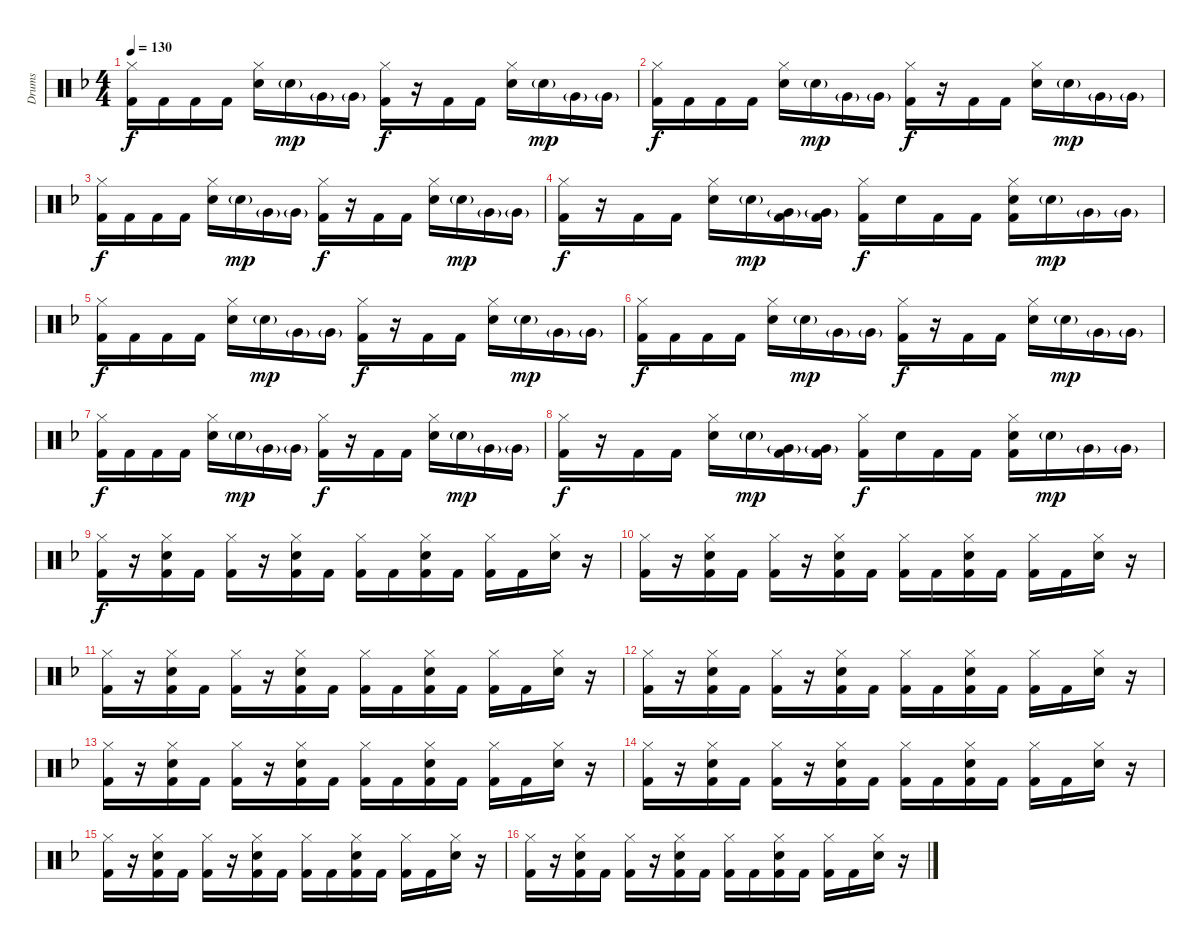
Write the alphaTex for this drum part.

\track ("Drums" "Drums") {instrument percussion}
\staff {score}
\articulation defaults
\ts (4 4)
\tempo 130
\clef neutral
\ks f
("Hi-Hat (closed)" "Kick (hit) 2").16{dy f} "Kick (hit) 2".16 "Kick (hit) 2".16 "Kick (hit) 2".16 ("Hi-Hat (closed)" "Electric Snare (hit)").16 "Snare (hit) 2"{g}.16{dy mp} "Very Low Tom (hit)"{g}.16 "Very Low Tom (hit)"{g}.16 ("Hi-Hat (closed)" "Kick (hit) 2").16{dy f} r.16 "Kick (hit) 2".16 "Kick (hit) 2".16 ("Hi-Hat (closed)" "Electric Snare (hit)").16 "Snare (hit) 2"{g}.16{dy mp} "Very Low Tom (hit)"{g}.16 "Very Low Tom (hit)"{g}.16 |
("Hi-Hat (closed)" "Kick (hit) 2").16{dy f} "Kick (hit) 2".16 "Kick (hit) 2".16 "Kick (hit) 2".16 ("Hi-Hat (closed)" "Electric Snare (hit)").16 "Snare (hit) 2"{g}.16{dy mp} "Very Low Tom (hit)"{g}.16 "Very Low Tom (hit)"{g}.16 ("Hi-Hat (closed)" "Kick (hit) 2").16{dy f} r.16 "Kick (hit) 2".16 "Kick (hit) 2".16 ("Hi-Hat (closed)" "Electric Snare (hit)").16 "Snare (hit) 2"{g}.16{dy mp} "Very Low Tom (hit)"{g}.16 "Very Low Tom (hit)"{g}.16 |
("Hi-Hat (closed)" "Kick (hit) 2").16{dy f} "Kick (hit) 2".16 "Kick (hit) 2".16 "Kick (hit) 2".16 ("Hi-Hat (closed)" "Electric Snare (hit)").16 "Snare (hit) 2"{g}.16{dy mp} "Very Low Tom (hit)"{g}.16 "Very Low Tom (hit)"{g}.16 ("Hi-Hat (closed)" "Kick (hit) 2").16{dy f} r.16 "Kick (hit) 2".16 "Kick (hit) 2".16 ("Hi-Hat (closed)" "Electric Snare (hit)").16 "Snare (hit) 2"{g}.16{dy mp} "Very Low Tom (hit)"{g}.16 "Very Low Tom (hit)"{g}.16 |
("Hi-Hat (closed)" "Kick (hit) 2").16{dy f} r.16 "Kick (hit) 2".16 "Kick (hit) 2".16 ("Hi-Hat (closed)" "Electric Snare (hit)").16 "Snare (hit) 2"{g}.16{dy mp} ("Very Low Tom (hit)"{g} "Kick (hit) 2").16 ("Very Low Tom (hit)"{g} "Kick (hit) 2").16 ("Hi-Hat (closed)" "Kick (hit) 2").16{dy f} "Electric Snare (hit)".16 "Kick (hit) 2".16 "Kick (hit) 2".16 ("Hi-Hat (closed)" "Electric Snare (hit)" "Kick (hit) 2").16 "Snare (hit) 2"{g}.16{dy mp} "Very Low Tom (hit)"{g}.16 "Very Low Tom (hit)"{g}.16 |
("Hi-Hat (closed)" "Kick (hit) 2").16{dy f} "Kick (hit) 2".16 "Kick (hit) 2".16 "Kick (hit) 2".16 ("Hi-Hat (closed)" "Electric Snare (hit)").16 "Snare (hit) 2"{g}.16{dy mp} "Very Low Tom (hit)"{g}.16 "Very Low Tom (hit)"{g}.16 ("Hi-Hat (closed)" "Kick (hit) 2").16{dy f} r.16 "Kick (hit) 2".16 "Kick (hit) 2".16 ("Hi-Hat (closed)" "Electric Snare (hit)").16 "Snare (hit) 2"{g}.16{dy mp} "Very Low Tom (hit)"{g}.16 "Very Low Tom (hit)"{g}.16 |
("Hi-Hat (closed)" "Kick (hit) 2").16{dy f} "Kick (hit) 2".16 "Kick (hit) 2".16 "Kick (hit) 2".16 ("Hi-Hat (closed)" "Electric Snare (hit)").16 "Snare (hit) 2"{g}.16{dy mp} "Very Low Tom (hit)"{g}.16 "Very Low Tom (hit)"{g}.16 ("Hi-Hat (closed)" "Kick (hit) 2").16{dy f} r.16 "Kick (hit) 2".16 "Kick (hit) 2".16 ("Hi-Hat (closed)" "Electric Snare (hit)").16 "Snare (hit) 2"{g}.16{dy mp} "Very Low Tom (hit)"{g}.16 "Very Low Tom (hit)"{g}.16 |
("Hi-Hat (closed)" "Kick (hit) 2").16{dy f} "Kick (hit) 2".16 "Kick (hit) 2".16 "Kick (hit) 2".16 ("Hi-Hat (closed)" "Electric Snare (hit)").16 "Snare (hit) 2"{g}.16{dy mp} "Very Low Tom (hit)"{g}.16 "Very Low Tom (hit)"{g}.16 ("Hi-Hat (closed)" "Kick (hit) 2").16{dy f} r.16 "Kick (hit) 2".16 "Kick (hit) 2".16 ("Hi-Hat (closed)" "Electric Snare (hit)").16 "Snare (hit) 2"{g}.16{dy mp} "Very Low Tom (hit)"{g}.16 "Very Low Tom (hit)"{g}.16 |
("Hi-Hat (closed)" "Kick (hit) 2").16{dy f} r.16 "Kick (hit) 2".16 "Kick (hit) 2".16 ("Hi-Hat (closed)" "Electric Snare (hit)").16 "Snare (hit) 2"{g}.16{dy mp} ("Very Low Tom (hit)"{g} "Kick (hit) 2").16 ("Very Low Tom (hit)"{g} "Kick (hit) 2").16 ("Hi-Hat (closed)" "Kick (hit) 2").16{dy f} "Electric Snare (hit)".16 "Kick (hit) 2".16 "Kick (hit) 2".16 ("Hi-Hat (closed)" "Electric Snare (hit)" "Kick (hit) 2").16 "Snare (hit) 2"{g}.16{dy mp} "Very Low Tom (hit)"{g}.16 "Very Low Tom (hit)"{g}.16 |
("Hi-Hat (closed)" "Kick (hit) 2").16{dy f} r.16 ("Hi-Hat (closed)" "Electric Snare (hit)" "Kick (hit) 2").16 "Kick (hit) 2".16 ("Hi-Hat (closed)" "Kick (hit) 2").16 r.16 ("Hi-Hat (closed)" "Electric Snare (hit)" "Kick (hit) 2").16 "Kick (hit) 2".16 ("Hi-Hat (closed)" "Kick (hit) 2").16 "Kick (hit) 2".16 ("Hi-Hat (closed)" "Electric Snare (hit)" "Kick (hit) 2").16 "Kick (hit) 2".16 ("Hi-Hat (closed)" "Kick (hit) 2").16 "Kick (hit) 2".16 ("Hi-Hat (closed)" "Electric Snare (hit)").16 r.16 |
("Hi-Hat (closed)" "Kick (hit) 2").16 r.16 ("Hi-Hat (closed)" "Electric Snare (hit)" "Kick (hit) 2").16 "Kick (hit) 2".16 ("Hi-Hat (closed)" "Kick (hit) 2").16 r.16 ("Hi-Hat (closed)" "Electric Snare (hit)" "Kick (hit) 2").16 "Kick (hit) 2".16 ("Hi-Hat (closed)" "Kick (hit) 2").16 "Kick (hit) 2".16 ("Hi-Hat (closed)" "Electric Snare (hit)" "Kick (hit) 2").16 "Kick (hit) 2".16 ("Hi-Hat (closed)" "Kick (hit) 2").16 "Kick (hit) 2".16 ("Hi-Hat (closed)" "Electric Snare (hit)").16 r.16 |
("Hi-Hat (closed)" "Kick (hit) 2").16 r.16 ("Hi-Hat (closed)" "Electric Snare (hit)" "Kick (hit) 2").16 "Kick (hit) 2".16 ("Hi-Hat (closed)" "Kick (hit) 2").16 r.16 ("Hi-Hat (closed)" "Electric Snare (hit)" "Kick (hit) 2").16 "Kick (hit) 2".16 ("Hi-Hat (closed)" "Kick (hit) 2").16 "Kick (hit) 2".16 ("Hi-Hat (closed)" "Electric Snare (hit)" "Kick (hit) 2").16 "Kick (hit) 2".16 ("Hi-Hat (closed)" "Kick (hit) 2").16 "Kick (hit) 2".16 ("Hi-Hat (closed)" "Electric Snare (hit)").16 r.16 |
("Hi-Hat (closed)" "Kick (hit) 2").16 r.16 ("Hi-Hat (closed)" "Electric Snare (hit)" "Kick (hit) 2").16 "Kick (hit) 2".16 ("Hi-Hat (closed)" "Kick (hit) 2").16 r.16 ("Hi-Hat (closed)" "Electric Snare (hit)" "Kick (hit) 2").16 "Kick (hit) 2".16 ("Hi-Hat (closed)" "Kick (hit) 2").16 "Kick (hit) 2".16 ("Hi-Hat (closed)" "Electric Snare (hit)" "Kick (hit) 2").16 "Kick (hit) 2".16 ("Hi-Hat (closed)" "Kick (hit) 2").16 "Kick (hit) 2".16 ("Hi-Hat (closed)" "Electric Snare (hit)").16 r.16 |
("Hi-Hat (closed)" "Kick (hit) 2").16 r.16 ("Hi-Hat (closed)" "Electric Snare (hit)" "Kick (hit) 2").16 "Kick (hit) 2".16 ("Hi-Hat (closed)" "Kick (hit) 2").16 r.16 ("Hi-Hat (closed)" "Electric Snare (hit)" "Kick (hit) 2").16 "Kick (hit) 2".16 ("Hi-Hat (closed)" "Kick (hit) 2").16 "Kick (hit) 2".16 ("Hi-Hat (closed)" "Electric Snare (hit)" "Kick (hit) 2").16 "Kick (hit) 2".16 ("Hi-Hat (closed)" "Kick (hit) 2").16 "Kick (hit) 2".16 ("Hi-Hat (closed)" "Electric Snare (hit)").16 r.16 |
("Hi-Hat (closed)" "Kick (hit) 2").16 r.16 ("Hi-Hat (closed)" "Electric Snare (hit)" "Kick (hit) 2").16 "Kick (hit) 2".16 ("Hi-Hat (closed)" "Kick (hit) 2").16 r.16 ("Hi-Hat (closed)" "Electric Snare (hit)" "Kick (hit) 2").16 "Kick (hit) 2".16 ("Hi-Hat (closed)" "Kick (hit) 2").16 "Kick (hit) 2".16 ("Hi-Hat (closed)" "Electric Snare (hit)" "Kick (hit) 2").16 "Kick (hit) 2".16 ("Hi-Hat (closed)" "Kick (hit) 2").16 "Kick (hit) 2".16 ("Hi-Hat (closed)" "Electric Snare (hit)").16 r.16 |
("Hi-Hat (closed)" "Kick (hit) 2").16 r.16 ("Hi-Hat (closed)" "Electric Snare (hit)" "Kick (hit) 2").16 "Kick (hit) 2".16 ("Hi-Hat (closed)" "Kick (hit) 2").16 r.16 ("Hi-Hat (closed)" "Electric Snare (hit)" "Kick (hit) 2").16 "Kick (hit) 2".16 ("Hi-Hat (closed)" "Kick (hit) 2").16 "Kick (hit) 2".16 ("Hi-Hat (closed)" "Electric Snare (hit)" "Kick (hit) 2").16 "Kick (hit) 2".16 ("Hi-Hat (closed)" "Kick (hit) 2").16 "Kick (hit) 2".16 ("Hi-Hat (closed)" "Electric Snare (hit)").16 r.16 |
("Hi-Hat (closed)" "Kick (hit) 2").16 r.16 ("Hi-Hat (closed)" "Electric Snare (hit)" "Kick (hit) 2").16 "Kick (hit) 2".16 ("Hi-Hat (closed)" "Kick (hit) 2").16 r.16 ("Hi-Hat (closed)" "Electric Snare (hit)" "Kick (hit) 2").16 "Kick (hit) 2".16 ("Hi-Hat (closed)" "Kick (hit) 2").16 "Kick (hit) 2".16 ("Hi-Hat (closed)" "Electric Snare (hit)" "Kick (hit) 2").16 "Kick (hit) 2".16 ("Hi-Hat (closed)" "Kick (hit) 2").16 "Kick (hit) 2".16 ("Hi-Hat (closed)" "Electric Snare (hit)").16 r.16
